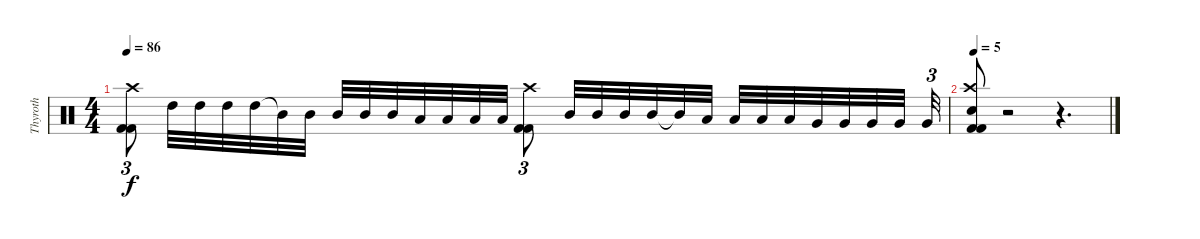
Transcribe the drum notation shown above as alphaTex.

\track ("Thyroth" "Thyroth") {instrument percussion}
\staff {score}
\articulation defaults
\ts (4 4)
\tempo 86
\clef neutral
\ks c
("Kick (hit) 2" "Kick (hit) 2" "Crash high (hit)").8{tu (3 2) dy f} "High Tom (hit)".32 "High Tom (hit)".32 "High Tom (hit)".32 "High Tom (hit)".32 "Mid Tom (hit)"{t}.32 "Mid Tom (hit)".32 "Mid Tom (hit)".32 "Mid Tom (hit)".32 "Mid Tom (hit)".32 "Low Tom (hit)".32 "Low Tom (hit)".32 "Low Tom (hit)".32 "Low Tom (hit)".32 ("Kick (hit) 2" "Kick (hit) 2" "Crash high (hit)").8{tu (3 2)} "Mid Tom (hit)".32 "Mid Tom (hit)".32 "Mid Tom (hit)".32 "Mid Tom (hit)".32 "Mid Tom (hit)"{t}.32 "Low Tom (hit)".32 "Low Tom (hit)".32 "Low Tom (hit)".32 "Low Tom (hit)".32 "Very Low Tom (hit)".32 "Very Low Tom (hit)".32 "Very Low Tom (hit)".32 "Very Low Tom (hit)".32 "Very Low Tom (hit)".32{tu (3 2)} |
\tempo 5
("Kick (hit) 2" "Kick (hit) 2" "Snare (hit) 2" "Crash high (hit)").8 r.2 r.4{d}
